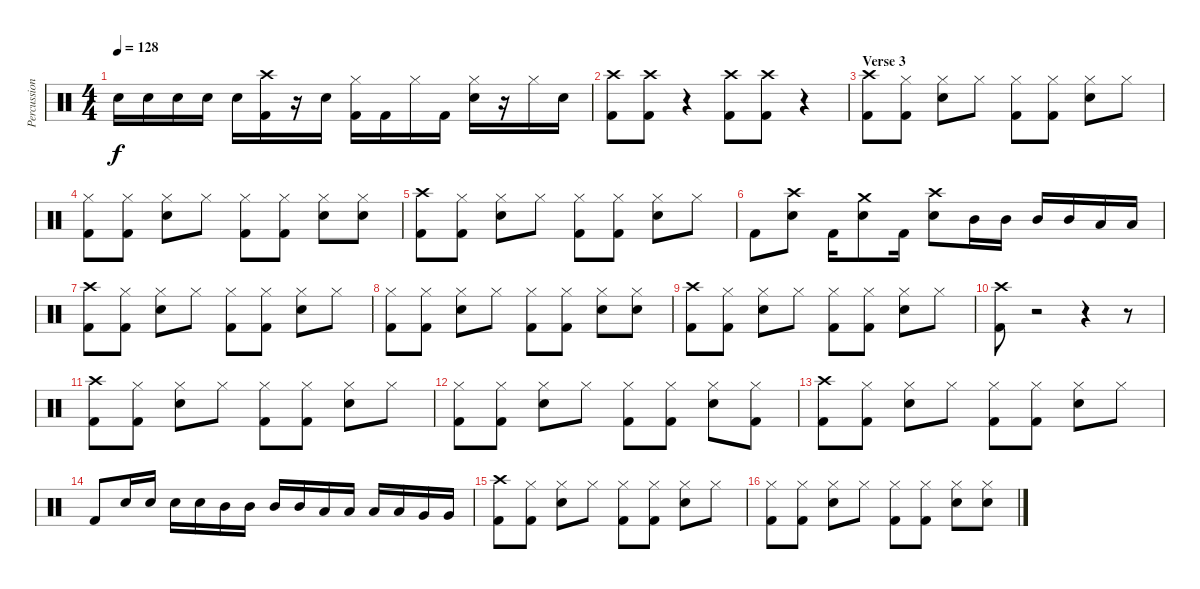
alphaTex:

\track ("Percussion" "Percussion") {instrument percussion}
\staff {score}
\articulation defaults
\ts (4 4)
\tempo 128
\clef neutral
\ks c "Snare (hit) 2".16{dy f} "Snare (hit) 2".16 "Snare (hit) 2".16 "Snare (hit) 2".16 "Snare (hit) 2".16
("Crash high (hit)" "Kick (hit) 2").16 r.16 "Snare (hit) 2".16 ("Hi-Hat (closed)" "Kick (hit) 2").16 "Kick (hit) 2".16 "Hi-Hat (closed)".16 "Kick (hit) 2".16 ("Hi-Hat (closed)" "Snare (hit) 2").16 r.16 "Hi-Hat (closed)".16 "Snare (hit) 2".16 |
("Crash high (hit)" "Kick (hit) 2").8 ("Crash high (hit)" "Kick (hit) 2").8 r.4 ("Crash high (hit)" "Kick (hit) 2").8 ("Crash high (hit)" "Kick (hit) 2").8 r.4 |
\section ("" "Verse 3")
("Crash high (hit)" "Kick (hit) 2").8 ("Hi-Hat (closed)" "Kick (hit) 2").8 ("Hi-Hat (closed)" "Snare (hit) 2").8 "Hi-Hat (closed)".8 ("Hi-Hat (closed)" "Kick (hit) 2").8 ("Hi-Hat (closed)" "Kick (hit) 2").8 ("Hi-Hat (closed)" "Snare (hit) 2").8 "Hi-Hat (closed)".8 |
("Hi-Hat (closed)" "Kick (hit) 2").8 ("Hi-Hat (closed)" "Kick (hit) 2").8 ("Hi-Hat (closed)" "Snare (hit) 2").8 "Hi-Hat (closed)".8 ("Hi-Hat (closed)" "Kick (hit) 2").8 ("Hi-Hat (closed)" "Kick (hit) 2").8 ("Hi-Hat (closed)" "Snare (hit) 2").8 ("Hi-Hat (closed)" "Snare (hit) 2").8 |
("Crash high (hit)" "Kick (hit) 2").8 ("Hi-Hat (closed)" "Kick (hit) 2").8 ("Hi-Hat (closed)" "Snare (hit) 2").8 "Hi-Hat (closed)".8 ("Hi-Hat (closed)" "Kick (hit) 2").8 ("Hi-Hat (closed)" "Kick (hit) 2").8 ("Hi-Hat (closed)" "Snare (hit) 2").8 "Hi-Hat (closed)".8 |
"Kick (hit) 2".8 ("Crash high (hit)" "Snare (hit) 2").8 "Kick (hit) 2".16 ("Crash medium (hit)" "Snare (hit) 2").8 "Kick (hit) 2".16 ("Crash high (hit)" "Snare (hit) 2").8 "Mid Tom (hit)".16 "Mid Tom (hit)".16 "Mid Tom (hit)".16 "Mid Tom (hit)".16 "Low Tom (hit)".16 "Low Tom (hit)".16 |
("Crash high (hit)" "Kick (hit) 2").8 ("Hi-Hat (closed)" "Kick (hit) 2").8 ("Hi-Hat (closed)" "Snare (hit) 2").8 "Hi-Hat (closed)".8 ("Hi-Hat (closed)" "Kick (hit) 2").8 ("Hi-Hat (closed)" "Kick (hit) 2").8 ("Hi-Hat (closed)" "Snare (hit) 2").8 "Hi-Hat (closed)".8 |
("Hi-Hat (closed)" "Kick (hit) 2").8 ("Hi-Hat (closed)" "Kick (hit) 2").8 ("Hi-Hat (closed)" "Snare (hit) 2").8 "Hi-Hat (closed)".8 ("Hi-Hat (closed)" "Kick (hit) 2").8 ("Hi-Hat (closed)" "Kick (hit) 2").8 ("Hi-Hat (closed)" "Snare (hit) 2").8 ("Hi-Hat (closed)" "Snare (hit) 2").8 |
("Crash high (hit)" "Kick (hit) 2").8 ("Hi-Hat (closed)" "Kick (hit) 2").8 ("Hi-Hat (closed)" "Snare (hit) 2").8 "Hi-Hat (closed)".8 ("Hi-Hat (closed)" "Kick (hit) 2").8 ("Hi-Hat (closed)" "Kick (hit) 2").8 ("Hi-Hat (closed)" "Snare (hit) 2").8 "Hi-Hat (closed)".8 |
("Crash high (hit)" "Kick (hit) 2").8 r.2 r.4 r.8 |
("Crash high (hit)" "Kick (hit) 2").8 ("Hi-Hat (closed)" "Kick (hit) 2").8 ("Hi-Hat (closed)" "Snare (hit) 2").8 "Hi-Hat (closed)".8 ("Hi-Hat (closed)" "Kick (hit) 2").8 ("Hi-Hat (closed)" "Kick (hit) 2").8 ("Hi-Hat (closed)" "Snare (hit) 2").8 "Hi-Hat (closed)".8 |
("Hi-Hat (closed)" "Kick (hit) 2").8 ("Hi-Hat (closed)" "Kick (hit) 2").8 ("Hi-Hat (closed)" "Snare (hit) 2").8 "Hi-Hat (closed)".8 ("Hi-Hat (closed)" "Kick (hit) 2").8 ("Hi-Hat (closed)" "Kick (hit) 2").8 ("Hi-Hat (closed)" "Snare (hit) 2").8 ("Hi-Hat (closed)" "Kick (hit) 2").8 |
("Crash high (hit)" "Kick (hit) 2").8 ("Hi-Hat (closed)" "Kick (hit) 2").8 ("Hi-Hat (closed)" "Snare (hit) 2").8 "Hi-Hat (closed)".8 ("Hi-Hat (closed)" "Kick (hit) 2").8 ("Hi-Hat (closed)" "Kick (hit) 2").8 ("Hi-Hat (closed)" "Snare (hit) 2").8 "Hi-Hat (closed)".8 |
"Kick (hit) 2".8 "Snare (hit) 2".16 "Snare (hit) 2".16 "Snare (hit) 2".16 "Snare (hit) 2".16 "Mid Tom (hit)".16 "Mid Tom (hit)".16 "Mid Tom (hit)".16 "Mid Tom (hit)".16 "Low Tom (hit)".16 "Low Tom (hit)".16 "Low Tom (hit)".16 "Low Tom (hit)".16 "Very Low Tom (hit)".16 "Very Low Tom (hit)".16 |
("Crash high (hit)" "Kick (hit) 2").8 ("Hi-Hat (closed)" "Kick (hit) 2").8 ("Hi-Hat (closed)" "Snare (hit) 2").8 "Hi-Hat (closed)".8 ("Hi-Hat (closed)" "Kick (hit) 2").8 ("Hi-Hat (closed)" "Kick (hit) 2").8 ("Hi-Hat (closed)" "Snare (hit) 2").8 "Hi-Hat (closed)".8 |
("Hi-Hat (closed)" "Kick (hit) 2").8 ("Hi-Hat (closed)" "Kick (hit) 2").8 ("Hi-Hat (closed)" "Snare (hit) 2").8 "Hi-Hat (closed)".8 ("Hi-Hat (closed)" "Kick (hit) 2").8 ("Hi-Hat (closed)" "Kick (hit) 2").8 ("Hi-Hat (closed)" "Snare (hit) 2").8 ("Hi-Hat (closed)" "Snare (hit) 2").8
